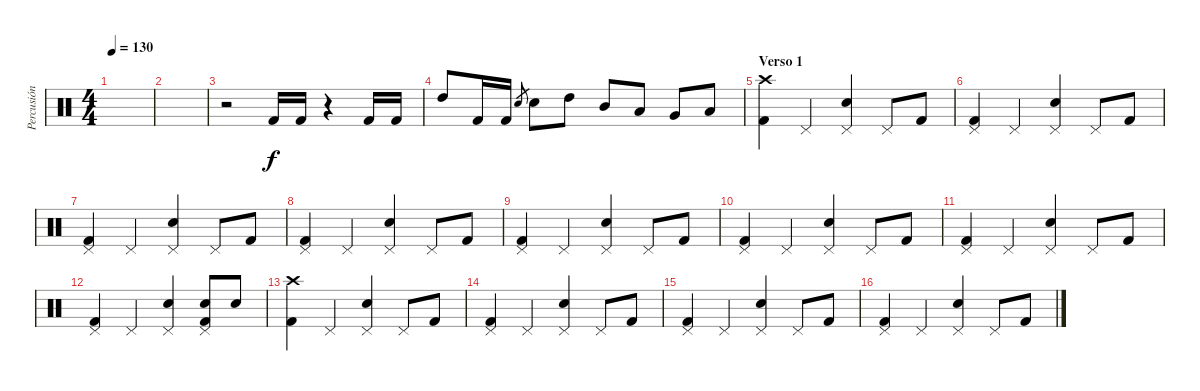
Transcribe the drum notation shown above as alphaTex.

\track ("Percusión" "Percusión") {instrument percussion}
\staff {score}
\articulation defaults
\ts (4 4)
\tempo 130
\clef neutral
\ks c
|
|
r.2 "Kick (hit) 2".16 "Kick (hit) 2".16 r.4 "Kick (hit) 2".16 "Kick (hit) 2".16 |
"High Tom (hit)".8 "Kick (hit) 2".16 "Kick (hit) 2".16 "Electric Snare (hit)".8{gr} "Electric Snare (hit)".8 "High Tom (hit)".8 "Mid Tom (hit)".8 "Low Tom (hit)".8 "Very Low Tom (hit)".8 "Low Floor Tom (hit)".8 |
\section ("" "Verso 1")
("Crash high (hit)" "Kick (hit) 2").4 "Pedal Hi-Hat (hit)".4 ("Pedal Hi-Hat (hit)" "Electric Snare (hit)").4 "Pedal Hi-Hat (hit)".8 "Kick (hit) 2".8 |
("Pedal Hi-Hat (hit)" "Kick (hit) 2").4 "Pedal Hi-Hat (hit)".4 ("Pedal Hi-Hat (hit)" "Electric Snare (hit)").4 "Pedal Hi-Hat (hit)".8 "Kick (hit) 2".8 |
("Pedal Hi-Hat (hit)" "Kick (hit) 2").4 "Pedal Hi-Hat (hit)".4 ("Pedal Hi-Hat (hit)" "Electric Snare (hit)").4 "Pedal Hi-Hat (hit)".8 "Kick (hit) 2".8 |
("Pedal Hi-Hat (hit)" "Kick (hit) 2").4 "Pedal Hi-Hat (hit)".4 ("Pedal Hi-Hat (hit)" "Electric Snare (hit)").4 "Pedal Hi-Hat (hit)".8 "Kick (hit) 2".8 |
("Pedal Hi-Hat (hit)" "Kick (hit) 2").4 "Pedal Hi-Hat (hit)".4 ("Pedal Hi-Hat (hit)" "Electric Snare (hit)").4 "Pedal Hi-Hat (hit)".8 "Kick (hit) 2".8 |
("Pedal Hi-Hat (hit)" "Kick (hit) 2").4 "Pedal Hi-Hat (hit)".4 ("Pedal Hi-Hat (hit)" "Electric Snare (hit)").4 "Pedal Hi-Hat (hit)".8 "Kick (hit) 2".8 |
("Pedal Hi-Hat (hit)" "Kick (hit) 2").4 "Pedal Hi-Hat (hit)".4 ("Pedal Hi-Hat (hit)" "Electric Snare (hit)").4 "Pedal Hi-Hat (hit)".8 "Kick (hit) 2".8 |
("Pedal Hi-Hat (hit)" "Kick (hit) 2").4 "Pedal Hi-Hat (hit)".4 ("Pedal Hi-Hat (hit)" "Electric Snare (hit)").4 ("Pedal Hi-Hat (hit)" "Electric Snare (hit)" "Kick (hit) 2").8 "Electric Snare (hit)".8 |
("Crash high (hit)" "Kick (hit) 2").4 "Pedal Hi-Hat (hit)".4 ("Pedal Hi-Hat (hit)" "Electric Snare (hit)").4 "Pedal Hi-Hat (hit)".8 "Kick (hit) 2".8 |
("Pedal Hi-Hat (hit)" "Kick (hit) 2").4 "Pedal Hi-Hat (hit)".4 ("Pedal Hi-Hat (hit)" "Electric Snare (hit)").4 "Pedal Hi-Hat (hit)".8 "Kick (hit) 2".8 |
("Pedal Hi-Hat (hit)" "Kick (hit) 2").4 "Pedal Hi-Hat (hit)".4 ("Pedal Hi-Hat (hit)" "Electric Snare (hit)").4 "Pedal Hi-Hat (hit)".8 "Kick (hit) 2".8 |
("Pedal Hi-Hat (hit)" "Kick (hit) 2").4 "Pedal Hi-Hat (hit)".4 ("Pedal Hi-Hat (hit)" "Electric Snare (hit)").4 "Pedal Hi-Hat (hit)".8 "Kick (hit) 2".8
